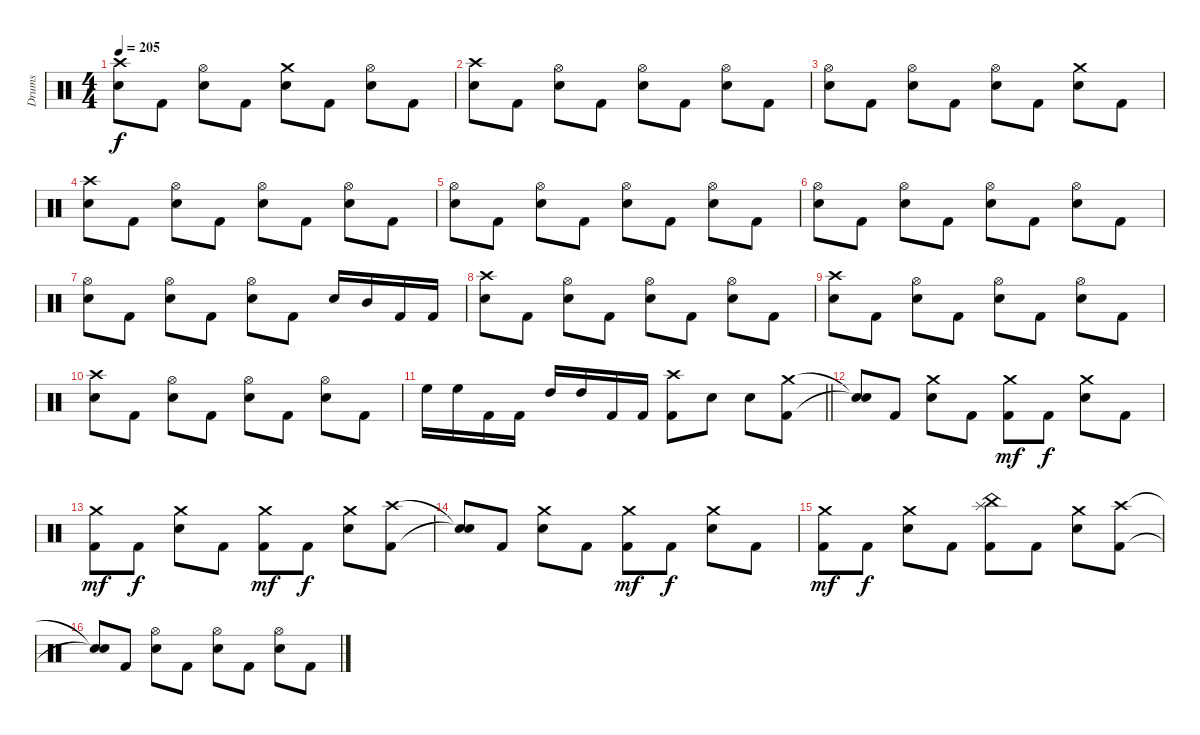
\track ("Drums" "Drums") {instrument percussion}
\staff {score}
\articulation defaults
\ts (4 4)
\tempo 205
\clef neutral
\ks c
("Crash high (hit)" "Electric Snare (hit)").8{dy f} "Kick (hit) 2".8 ("Hi-Hat (open)" "Electric Snare (hit)").8 "Kick (hit) 2".8 ("Crash medium (hit)" "Electric Snare (hit)").8 "Kick (hit) 2".8 ("Hi-Hat (open)" "Electric Snare (hit)").8 "Kick (hit) 2".8 |
("Crash high (hit)" "Electric Snare (hit)").8 "Kick (hit) 2".8 ("Hi-Hat (open)" "Electric Snare (hit)").8 "Kick (hit) 2".8 ("Hi-Hat (open)" "Electric Snare (hit)").8 "Kick (hit) 2".8 ("Hi-Hat (open)" "Electric Snare (hit)").8 "Kick (hit) 2".8 |
("Hi-Hat (open)" "Electric Snare (hit)").8 "Kick (hit) 2".8 ("Hi-Hat (open)" "Electric Snare (hit)").8 "Kick (hit) 2".8 ("Hi-Hat (open)" "Electric Snare (hit)").8 "Kick (hit) 2".8 ("Crash medium (hit)" "Electric Snare (hit)").8 "Kick (hit) 2".8 |
("Crash high (hit)" "Electric Snare (hit)").8 "Kick (hit) 2".8 ("Hi-Hat (open)" "Electric Snare (hit)").8 "Kick (hit) 2".8 ("Hi-Hat (open)" "Electric Snare (hit)").8 "Kick (hit) 2".8 ("Hi-Hat (open)" "Electric Snare (hit)").8 "Kick (hit) 2".8 |
("Hi-Hat (open)" "Electric Snare (hit)").8 "Kick (hit) 2".8 ("Hi-Hat (open)" "Electric Snare (hit)").8 "Kick (hit) 2".8 ("Hi-Hat (open)" "Electric Snare (hit)").8 "Kick (hit) 2".8 ("Hi-Hat (open)" "Electric Snare (hit)").8 "Kick (hit) 2".8 |
("Hi-Hat (open)" "Electric Snare (hit)").8 "Kick (hit) 2".8 ("Hi-Hat (open)" "Electric Snare (hit)").8 "Kick (hit) 2".8 ("Hi-Hat (open)" "Electric Snare (hit)").8 "Kick (hit) 2".8 ("Hi-Hat (open)" "Electric Snare (hit)").8 "Kick (hit) 2".8 |
("Hi-Hat (open)" "Electric Snare (hit)").8 "Kick (hit) 2".8 ("Hi-Hat (open)" "Electric Snare (hit)").8 "Kick (hit) 2".8 ("Hi-Hat (open)" "Electric Snare (hit)").8 "Kick (hit) 2".8 "Electric Snare (hit)".16 "Mid Tom (hit)".16 "Kick (hit) 2".16 "Kick (hit) 2".16 |
("Crash high (hit)" "Electric Snare (hit)").8 "Kick (hit) 2".8 ("Hi-Hat (open)" "Electric Snare (hit)").8 "Kick (hit) 2".8 ("Hi-Hat (open)" "Electric Snare (hit)").8 "Kick (hit) 2".8 ("Hi-Hat (open)" "Electric Snare (hit)").8 "Kick (hit) 2".8 |
("Crash high (hit)" "Electric Snare (hit)").8 "Kick (hit) 2".8 ("Hi-Hat (open)" "Electric Snare (hit)").8 "Kick (hit) 2".8 ("Hi-Hat (open)" "Electric Snare (hit)").8 "Kick (hit) 2".8 ("Hi-Hat (open)" "Electric Snare (hit)").8 "Kick (hit) 2".8 |
("Crash high (hit)" "Electric Snare (hit)").8 "Kick (hit) 2".8 ("Hi-Hat (open)" "Electric Snare (hit)").8 "Kick (hit) 2".8 ("Hi-Hat (open)" "Electric Snare (hit)").8 "Kick (hit) 2".8 ("Hi-Hat (open)" "Electric Snare (hit)").8 "Kick (hit) 2".8 |
\barLineRight lightlight "High Floor Tom (hit)".16 "High Floor Tom (hit)".16 "Kick (hit) 2".16 "Kick (hit) 2".16 "High Tom (hit)".16 "High Tom (hit)".16 "Kick (hit) 2".16 "Kick (hit) 2".16
("Crash high (hit)" "Kick (hit) 2").8 "Electric Snare (hit)".8 "Electric Snare (hit)".8 ("Crash medium (hit)" "Kick (hit) 2").8 |
("Snare (hit)"{t} "Snare (hit)"{t}).8 "Kick (hit) 2".8 ("Crash medium (hit)" "Electric Snare (hit)").8 "Kick (hit) 2".8 ("Crash medium (hit)" "Kick (hit) 2").8{dy mf} "Kick (hit) 2".8{dy f} ("Crash medium (hit)" "Electric Snare (hit)").8 "Kick (hit) 2".8 |
("Crash medium (hit)" "Kick (hit) 2").8{dy mf} "Kick (hit) 2".8{dy f} ("Crash medium (hit)" "Electric Snare (hit)").8 "Kick (hit) 2".8 ("Crash medium (hit)" "Kick (hit) 2").8{dy mf} "Kick (hit) 2".8{dy f} ("Crash medium (hit)" "Electric Snare (hit)").8 ("Crash high (hit)" "Kick (hit) 2").8 |
("Snare (hit)"{t} "Snare (hit)"{t}).8 "Kick (hit) 2".8 ("Crash medium (hit)" "Electric Snare (hit)").8 "Kick (hit) 2".8 ("Crash medium (hit)" "Kick (hit) 2").8{dy mf} "Kick (hit) 2".8{dy f} ("Crash medium (hit)" "Electric Snare (hit)").8 "Kick (hit) 2".8 |
("Crash medium (hit)" "Kick (hit) 2").8{dy mf} "Kick (hit) 2".8{dy f} ("Crash medium (hit)" "Electric Snare (hit)").8 "Kick (hit) 2".8 ("China (hit)" "Splash (hit)" "Kick (hit) 2").8 "Kick (hit) 2".8 ("Crash medium (hit)" "Electric Snare (hit)").8 ("Crash high (hit)" "Kick (hit) 2").8 |
("Snare (hit)"{t} "Electric Snare (hit)"{t}).8 "Kick (hit) 2".8 ("Hi-Hat (open)" "Electric Snare (hit)").8 "Kick (hit) 2".8 ("Hi-Hat (open)" "Electric Snare (hit)").8 "Kick (hit) 2".8 ("Hi-Hat (open)" "Electric Snare (hit)").8 "Kick (hit) 2".8
